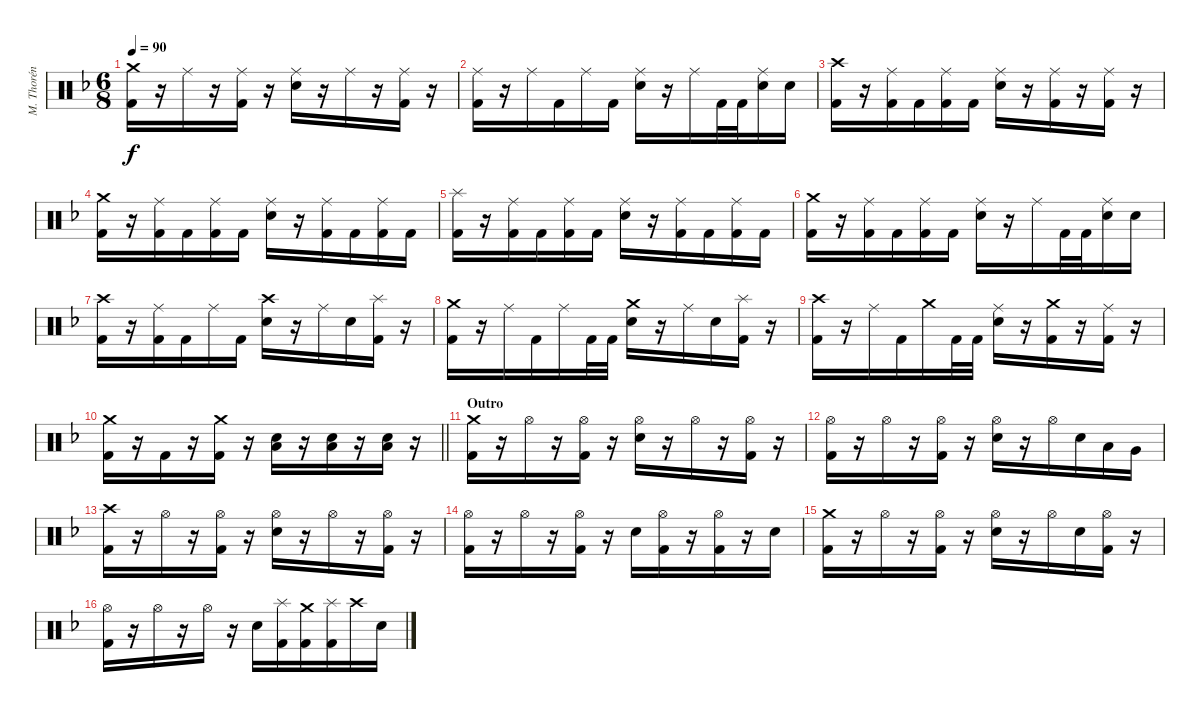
\track ("M. Thorén (Drums)" "M. Thorén ") {instrument percussion}
\staff {score}
\articulation defaults
\ts (6 8)
\tempo 90
\clef neutral
\ks dminor
("Crash medium (hit)" "Kick (hit) 2").16{dy f} r.16 "Ride (middle)".16 r.16 ("Ride (middle)" "Kick (hit) 2").16 r.16 ("Ride (middle)" "Electric Snare (hit)").16 r.16 "Ride (middle)".16 r.16 ("Ride (middle)" "Kick (hit) 2").16 r.16 |
("Ride (middle)" "Kick (hit) 2").16 r.16 "Ride (middle)".16 "Kick (hit) 2".16 "Ride (middle)".16 "Kick (hit) 2".16 ("Ride (middle)" "Electric Snare (hit)").16 r.16 "Ride (middle)".16 "Kick (hit) 2".32 "Kick (hit) 2".32 ("Ride (middle)" "Electric Snare (hit)").16 "Electric Snare (hit)".16 |
("Crash high (hit)" "Kick (hit) 2").16 r.16 ("Ride (middle)" "Kick (hit) 2").16 "Kick (hit) 2".16 ("Ride (middle)" "Kick (hit) 2").16 "Kick (hit) 2".16 ("Ride (middle)" "Electric Snare (hit)").16 r.16 ("Ride (middle)" "Kick (hit) 2").16 r.16 ("Ride (middle)" "Kick (hit) 2").16 r.16 |
("Crash medium (hit)" "Kick (hit) 2").16 r.16 ("Ride (middle)" "Kick (hit) 2").16 "Kick (hit) 2".16 ("Ride (middle)" "Kick (hit) 2").16 "Kick (hit) 2".16 ("Ride (middle)" "Electric Snare (hit)").16 r.16 ("Ride (middle)" "Kick (hit) 2").16 "Kick (hit) 2".16 ("Ride (middle)" "Kick (hit) 2").16 "Kick (hit) 2".16 |
("Splash (hit)" "Kick (hit) 2").16 r.16 ("Ride (middle)" "Kick (hit) 2").16 "Kick (hit) 2".16 ("Ride (middle)" "Kick (hit) 2").16 "Kick (hit) 2".16 ("Ride (middle)" "Electric Snare (hit)").16 r.16 ("Ride (middle)" "Kick (hit) 2").16 "Kick (hit) 2".16 ("Ride (middle)" "Kick (hit) 2").16 "Kick (hit) 2".16 |
("Crash medium (hit)" "Kick (hit) 2").16 r.16 ("Ride (middle)" "Kick (hit) 2").16 "Kick (hit) 2".16 ("Ride (middle)" "Kick (hit) 2").16 "Kick (hit) 2".16 ("Ride (middle)" "Electric Snare (hit)").16 r.16 "Ride (middle)".16 "Kick (hit) 2".32 "Kick (hit) 2".32 ("Ride (middle)" "Electric Snare (hit)").16 "Electric Snare (hit)".16 |
("Crash high (hit)" "Kick (hit) 2").16 r.16 ("Ride (middle)" "Kick (hit) 2").16 "Kick (hit) 2".16 "Ride (middle)".16 "Kick (hit) 2".16 ("Crash high (hit)" "Electric Snare (hit)").16 r.16 "Ride (middle)".16 "Electric Snare (hit)".16 ("Splash (hit)" "Kick (hit) 2").16 r.16 |
("Crash medium (hit)" "Kick (hit) 2").16 r.16 "Ride (middle)".16 "Kick (hit) 2".16 "Ride (middle)".16 "Kick (hit) 2".32 "Kick (hit) 2".32 ("Crash medium (hit)" "Electric Snare (hit)").16 r.16 "Ride (middle)".16 "Electric Snare (hit)".16 ("Splash (hit)" "Kick (hit) 2").16 r.16 |
("Crash high (hit)" "Kick (hit) 2").16 r.16 "Ride (middle)".16 "Kick (hit) 2".16 "Crash medium (hit)".16 "Kick (hit) 2".32 "Kick (hit) 2".32 ("Ride (middle)" "Electric Snare (hit)").16 r.16 ("Crash medium (hit)" "Kick (hit) 2").16 r.16 ("Ride (middle)" "Kick (hit) 2").16 r.16 |
\barLineRight lightlight
("Crash medium (hit)" "Kick (hit) 2").16 r.16 "Kick (hit) 2".16 r.16 ("Crash medium (hit)" "Kick (hit) 2").16 r.16 ("Electric Snare (hit)" "Low Floor Tom (hit)").16 r.16 ("Electric Snare (hit)" "Low Floor Tom (hit)").16 r.16 ("Electric Snare (hit)" "Low Floor Tom (hit)").16 r.16 |
\section ("" "Outro")
("Crash medium (hit)" "Kick (hit) 2").16 r.16 "Hi-Hat (open)".16 r.16 ("Hi-Hat (open)" "Kick (hit) 2").16 r.16 ("Hi-Hat (open)" "Electric Snare (hit)").16 r.16 "Hi-Hat (open)".16 r.16 ("Hi-Hat (open)" "Kick (hit) 2").16 r.16 |
("Hi-Hat (open)" "Kick (hit) 2").16 r.16 "Hi-Hat (open)".16 r.16 ("Hi-Hat (open)" "Kick (hit) 2").16 r.16 ("Hi-Hat (open)" "Electric Snare (hit)").16 r.16 "Hi-Hat (open)".16 "Electric Snare (hit)".16 "Low Tom (hit)".16 "Very Low Tom (hit)".16 |
("Crash high (hit)" "Kick (hit) 2").16 r.16 "Hi-Hat (open)".16 r.16 ("Hi-Hat (open)" "Kick (hit) 2").16 r.16 ("Hi-Hat (open)" "Electric Snare (hit)").16 r.16 "Hi-Hat (open)".16 r.16 ("Hi-Hat (open)" "Kick (hit) 2").16 r.16 |
("Hi-Hat (open)" "Kick (hit) 2").16 r.16 "Hi-Hat (open)".16 r.16 ("Hi-Hat (open)" "Kick (hit) 2").16 r.16 "Electric Snare (hit)".16 ("Hi-Hat (open)" "Kick (hit) 2").16 r.16 ("Hi-Hat (open)" "Kick (hit) 2").16 r.16 "Electric Snare (hit)".16 |
("Crash medium (hit)" "Kick (hit) 2").16 r.16 "Hi-Hat (open)".16 r.16 ("Hi-Hat (open)" "Kick (hit) 2").16 r.16 ("Hi-Hat (open)" "Electric Snare (hit)").16 r.16 "Hi-Hat (open)".16 "Electric Snare (hit)".16 ("Hi-Hat (open)" "Kick (hit) 2").16 r.16 |
("Hi-Hat (open)" "Kick (hit) 2").16 r.16 "Hi-Hat (open)".16 r.16 "Hi-Hat (open)".16 r.16 "Electric Snare (hit)".16 ("Splash (hit)" "Kick (hit) 2").16 ("Crash medium (hit)" "Kick (hit) 2").16 ("Splash (hit)" "Kick (hit) 2").16 "Crash high (hit)".16 "Electric Snare (hit)".16
